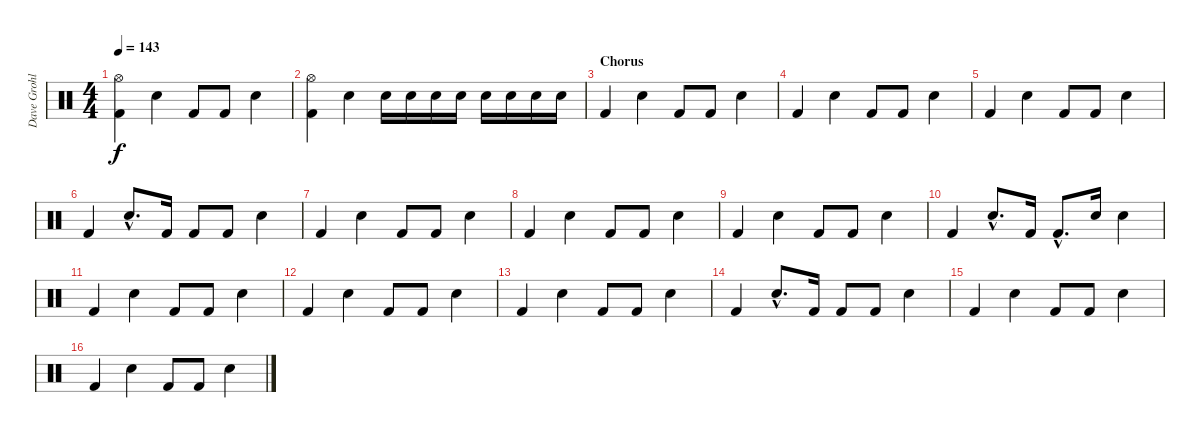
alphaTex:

\track ("Dave Grohl" "Dave Grohl") {instrument percussion}
\staff {score}
\articulation defaults
\ts (4 4)
\tempo 143
\clef neutral
\ks c
("Hi-Hat (open)" "Kick (hit) 2").4{dy f} "Snare (hit) 2".4 "Kick (hit) 2".8 "Kick (hit) 2".8 "Snare (hit) 2".4 |
("Hi-Hat (open)" "Kick (hit) 2").4 "Snare (hit) 2".4 "Snare (hit) 2".16 "Snare (hit) 2".16 "Snare (hit) 2".16 "Snare (hit) 2".16 "Snare (hit) 2".16 "Snare (hit) 2".16 "Snare (hit) 2".16 "Snare (hit) 2".16 |
\section ("" "Chorus")
"Kick (hit) 2".4 "Snare (hit) 2".4 "Kick (hit) 2".8 "Kick (hit) 2".8 "Snare (hit) 2".4 |
"Kick (hit) 2".4 "Snare (hit) 2".4 "Kick (hit) 2".8 "Kick (hit) 2".8 "Snare (hit) 2".4 |
"Kick (hit) 2".4 "Snare (hit) 2".4 "Kick (hit) 2".8 "Kick (hit) 2".8 "Snare (hit) 2".4 |
"Kick (hit) 2".4 "Snare (hit) 2"{hac}.8{d} "Kick (hit) 2".16 "Kick (hit) 2".8 "Kick (hit) 2".8 "Snare (hit) 2".4 |
"Kick (hit) 2".4 "Snare (hit) 2".4 "Kick (hit) 2".8 "Kick (hit) 2".8 "Snare (hit) 2".4 |
"Kick (hit) 2".4 "Snare (hit) 2".4 "Kick (hit) 2".8 "Kick (hit) 2".8 "Snare (hit) 2".4 |
"Kick (hit) 2".4 "Snare (hit) 2".4 "Kick (hit) 2".8 "Kick (hit) 2".8 "Snare (hit) 2".4 |
"Kick (hit) 2".4 "Snare (hit) 2"{hac}.8{d} "Kick (hit) 2".16 "Kick (hit) 2"{hac}.8{d} "Snare (hit) 2".16 "Snare (hit) 2".4 |
"Kick (hit) 2".4 "Snare (hit) 2".4 "Kick (hit) 2".8 "Kick (hit) 2".8 "Snare (hit) 2".4 |
"Kick (hit) 2".4 "Snare (hit) 2".4 "Kick (hit) 2".8 "Kick (hit) 2".8 "Snare (hit) 2".4 |
"Kick (hit) 2".4 "Snare (hit) 2".4 "Kick (hit) 2".8 "Kick (hit) 2".8 "Snare (hit) 2".4 |
"Kick (hit) 2".4 "Snare (hit) 2"{hac}.8{d} "Kick (hit) 2".16 "Kick (hit) 2".8 "Kick (hit) 2".8 "Snare (hit) 2".4 |
"Kick (hit) 2".4 "Snare (hit) 2".4 "Kick (hit) 2".8 "Kick (hit) 2".8 "Snare (hit) 2".4 |
"Kick (hit) 2".4 "Snare (hit) 2".4 "Kick (hit) 2".8 "Kick (hit) 2".8 "Snare (hit) 2".4
